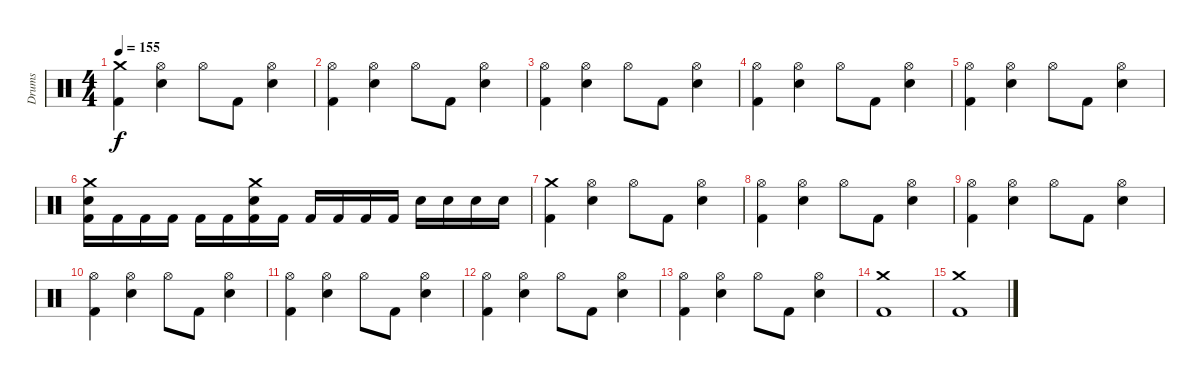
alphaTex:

\track ("Drums" "Drums") {instrument percussion}
\staff {score}
\articulation defaults
\ts (4 4)
\tempo 155
\clef neutral
\ks c
("Crash medium (hit)" "Kick (hit) 2").4{dy f} ("Hi-Hat (open)" "Snare (hit) 2").4 "Hi-Hat (open)".8 "Kick (hit) 2".8 ("Hi-Hat (open)" "Snare (hit) 2").4 |
("Hi-Hat (open)" "Kick (hit) 2").4 ("Hi-Hat (open)" "Snare (hit) 2").4 "Hi-Hat (open)".8 "Kick (hit) 2".8 ("Hi-Hat (open)" "Snare (hit) 2").4 |
("Hi-Hat (open)" "Kick (hit) 2").4 ("Hi-Hat (open)" "Snare (hit) 2").4 "Hi-Hat (open)".8 "Kick (hit) 2".8 ("Hi-Hat (open)" "Snare (hit) 2").4 |
("Hi-Hat (open)" "Kick (hit) 2").4 ("Hi-Hat (open)" "Snare (hit) 2").4 "Hi-Hat (open)".8 "Kick (hit) 2".8 ("Hi-Hat (open)" "Snare (hit) 2").4 |
("Hi-Hat (open)" "Kick (hit) 2").4 ("Hi-Hat (open)" "Snare (hit) 2").4 "Hi-Hat (open)".8 "Kick (hit) 2".8 ("Hi-Hat (open)" "Snare (hit) 2").4 |
("Crash medium (hit)" "Snare (hit) 2" "Kick (hit) 2").16 "Kick (hit) 2".16 "Kick (hit) 2".16 "Kick (hit) 2".16 "Kick (hit) 2".16 "Kick (hit) 2".16 ("Crash medium (hit)" "Snare (hit) 2" "Kick (hit) 2").16 "Kick (hit) 2".16 "Kick (hit) 2".16 "Kick (hit) 2".16 "Kick (hit) 2".16 "Kick (hit) 2".16 "Snare (hit) 2".16 "Snare (hit) 2".16 "Snare (hit) 2".16 "Snare (hit) 2".16 |
("Crash medium (hit)" "Kick (hit) 2").4 ("Hi-Hat (open)" "Snare (hit) 2").4 "Hi-Hat (open)".8 "Kick (hit) 2".8 ("Hi-Hat (open)" "Snare (hit) 2").4 |
("Hi-Hat (open)" "Kick (hit) 2").4 ("Hi-Hat (open)" "Snare (hit) 2").4 "Hi-Hat (open)".8 "Kick (hit) 2".8 ("Hi-Hat (open)" "Snare (hit) 2").4 |
("Hi-Hat (open)" "Kick (hit) 2").4 ("Hi-Hat (open)" "Snare (hit) 2").4 "Hi-Hat (open)".8 "Kick (hit) 2".8 ("Hi-Hat (open)" "Snare (hit) 2").4 |
("Hi-Hat (open)" "Kick (hit) 2").4 ("Hi-Hat (open)" "Snare (hit) 2").4 "Hi-Hat (open)".8 "Kick (hit) 2".8 ("Hi-Hat (open)" "Snare (hit) 2").4 |
("Hi-Hat (open)" "Kick (hit) 2").4 ("Hi-Hat (open)" "Snare (hit) 2").4 "Hi-Hat (open)".8 "Kick (hit) 2".8 ("Hi-Hat (open)" "Snare (hit) 2").4 |
("Hi-Hat (open)" "Kick (hit) 2").4 ("Hi-Hat (open)" "Snare (hit) 2").4 "Hi-Hat (open)".8 "Kick (hit) 2".8 ("Hi-Hat (open)" "Snare (hit) 2").4 |
("Hi-Hat (open)" "Kick (hit) 2").4 ("Hi-Hat (open)" "Snare (hit) 2").4 "Hi-Hat (open)".8 "Kick (hit) 2".8 ("Hi-Hat (open)" "Snare (hit) 2").4 |
("Crash medium (hit)" "Kick (hit) 2").1 |
("Crash medium (hit)" "Kick (hit) 2").1
